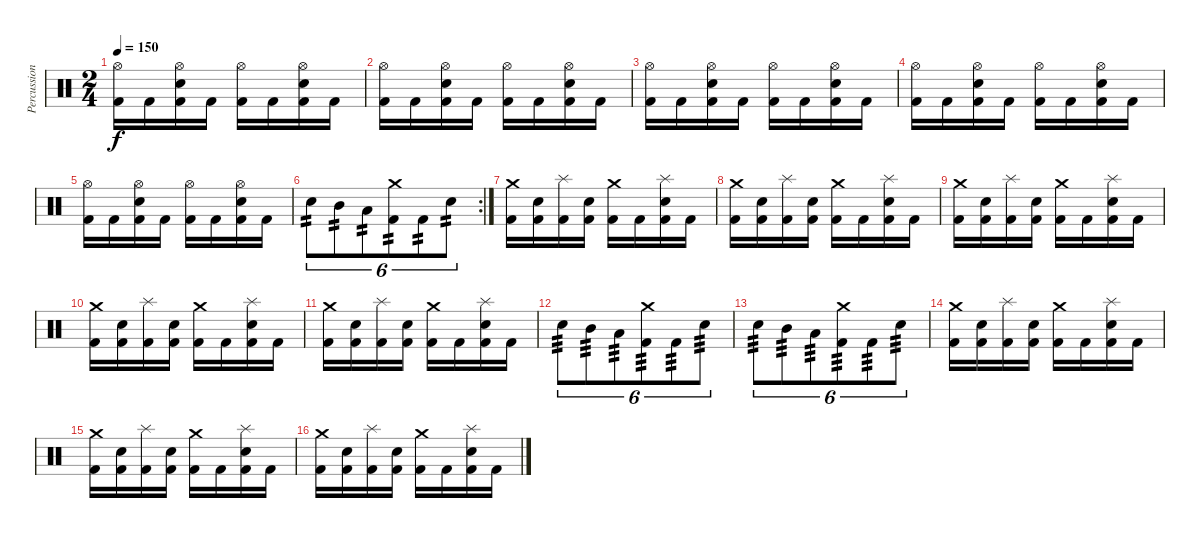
\track ("Percussion" "Percussion") {instrument percussion}
\staff {score}
\articulation defaults
\ts (2 4)
\tempo 150
\clef neutral
\ks c
("Kick (hit) 2" "Hi-Hat (open)").16{dy f} "Kick (hit) 2".16 ("Kick (hit) 2" "Snare (hit) 2" "Hi-Hat (open)").16 "Kick (hit) 2".16 ("Kick (hit) 2" "Hi-Hat (open)").16 "Kick (hit) 2".16 ("Kick (hit) 2" "Snare (hit) 2" "Hi-Hat (open)").16 "Kick (hit) 2".16 |
("Kick (hit) 2" "Hi-Hat (open)").16 "Kick (hit) 2".16 ("Kick (hit) 2" "Snare (hit) 2" "Hi-Hat (open)").16 "Kick (hit) 2".16 ("Kick (hit) 2" "Hi-Hat (open)").16 "Kick (hit) 2".16 ("Kick (hit) 2" "Snare (hit) 2" "Hi-Hat (open)").16 "Kick (hit) 2".16 |
("Kick (hit) 2" "Hi-Hat (open)").16 "Kick (hit) 2".16 ("Kick (hit) 2" "Snare (hit) 2" "Hi-Hat (open)").16 "Kick (hit) 2".16 ("Kick (hit) 2" "Hi-Hat (open)").16 "Kick (hit) 2".16 ("Kick (hit) 2" "Snare (hit) 2" "Hi-Hat (open)").16 "Kick (hit) 2".16 |
("Kick (hit) 2" "Hi-Hat (open)").16 "Kick (hit) 2".16 ("Kick (hit) 2" "Snare (hit) 2" "Hi-Hat (open)").16 "Kick (hit) 2".16 ("Kick (hit) 2" "Hi-Hat (open)").16 "Kick (hit) 2".16 ("Kick (hit) 2" "Snare (hit) 2" "Hi-Hat (open)").16 "Kick (hit) 2".16 |
("Kick (hit) 2" "Hi-Hat (open)").16 "Kick (hit) 2".16 ("Kick (hit) 2" "Snare (hit) 2" "Hi-Hat (open)").16 "Kick (hit) 2".16 ("Kick (hit) 2" "Hi-Hat (open)").16 "Kick (hit) 2".16 ("Kick (hit) 2" "Snare (hit) 2" "Hi-Hat (open)").16 "Kick (hit) 2".16 |
\rc 2 "Snare (hit) 2".8{tu (6 4) tp 2} "Mid Tom (hit)".8{tu (6 4) tp 2} "Low Tom (hit)".8{tu (6 4) tp 2}
("Crash medium (hit)" "Kick (hit) 2").8{tu (6 4) tp 2} "Kick (hit) 2".8{tu (6 4) tp 2} "Snare (hit) 2".8{tu (6 4) tp 2} |
("Kick (hit) 2" "Crash medium (hit)").16 ("Kick (hit) 2" "Snare (hit) 2").16 ("Kick (hit) 2" "Splash (hit)").16 ("Kick (hit) 2" "Snare (hit) 2").16 ("Kick (hit) 2" "Crash medium (hit)").16 "Kick (hit) 2".16 ("Kick (hit) 2" "Snare (hit) 2" "Splash (hit)").16 "Kick (hit) 2".16 |
("Kick (hit) 2" "Crash medium (hit)").16 ("Kick (hit) 2" "Snare (hit) 2").16 ("Kick (hit) 2" "Splash (hit)").16 ("Kick (hit) 2" "Snare (hit) 2").16 ("Kick (hit) 2" "Crash medium (hit)").16 "Kick (hit) 2".16 ("Kick (hit) 2" "Snare (hit) 2" "Splash (hit)").16 "Kick (hit) 2".16 |
("Kick (hit) 2" "Crash medium (hit)").16 ("Kick (hit) 2" "Snare (hit) 2").16 ("Kick (hit) 2" "Splash (hit)").16 ("Kick (hit) 2" "Snare (hit) 2").16 ("Kick (hit) 2" "Crash medium (hit)").16 "Kick (hit) 2".16 ("Kick (hit) 2" "Snare (hit) 2" "Splash (hit)").16 "Kick (hit) 2".16 |
("Kick (hit) 2" "Crash medium (hit)").16 ("Kick (hit) 2" "Snare (hit) 2").16 ("Kick (hit) 2" "Splash (hit)").16 ("Kick (hit) 2" "Snare (hit) 2").16 ("Kick (hit) 2" "Crash medium (hit)").16 "Kick (hit) 2".16 ("Kick (hit) 2" "Snare (hit) 2" "Splash (hit)").16 "Kick (hit) 2".16 |
("Kick (hit) 2" "Crash medium (hit)").16 ("Kick (hit) 2" "Snare (hit) 2").16 ("Kick (hit) 2" "Splash (hit)").16 ("Kick (hit) 2" "Snare (hit) 2").16 ("Kick (hit) 2" "Crash medium (hit)").16 "Kick (hit) 2".16 ("Kick (hit) 2" "Snare (hit) 2" "Splash (hit)").16 "Kick (hit) 2".16 |
"Snare (hit) 2".8{tu (6 4) tp 3} "Mid Tom (hit)".8{tu (6 4) tp 3} "Low Tom (hit)".8{tu (6 4) tp 3} ("Crash medium (hit)" "Kick (hit) 2").8{tu (6 4) tp 3} "Kick (hit) 2".8{tu (6 4) tp 3} "Snare (hit) 2".8{tu (6 4) tp 3} |
"Snare (hit) 2".8{tu (6 4) tp 3} "Mid Tom (hit)".8{tu (6 4) tp 3} "Low Tom (hit)".8{tu (6 4) tp 3} ("Crash medium (hit)" "Kick (hit) 2").8{tu (6 4) tp 3} "Kick (hit) 2".8{tu (6 4) tp 3} "Snare (hit) 2".8{tu (6 4) tp 3} |
("Kick (hit) 2" "Crash medium (hit)").16 ("Kick (hit) 2" "Snare (hit) 2").16 ("Kick (hit) 2" "Splash (hit)").16 ("Kick (hit) 2" "Snare (hit) 2").16 ("Kick (hit) 2" "Crash medium (hit)").16 "Kick (hit) 2".16 ("Kick (hit) 2" "Snare (hit) 2" "Splash (hit)").16 "Kick (hit) 2".16 |
("Kick (hit) 2" "Crash medium (hit)").16 ("Kick (hit) 2" "Snare (hit) 2").16 ("Kick (hit) 2" "Splash (hit)").16 ("Kick (hit) 2" "Snare (hit) 2").16 ("Kick (hit) 2" "Crash medium (hit)").16 "Kick (hit) 2".16 ("Kick (hit) 2" "Snare (hit) 2" "Splash (hit)").16 "Kick (hit) 2".16 |
("Kick (hit) 2" "Crash medium (hit)").16 ("Kick (hit) 2" "Snare (hit) 2").16 ("Kick (hit) 2" "Splash (hit)").16 ("Kick (hit) 2" "Snare (hit) 2").16 ("Kick (hit) 2" "Crash medium (hit)").16 "Kick (hit) 2".16 ("Kick (hit) 2" "Snare (hit) 2" "Splash (hit)").16 "Kick (hit) 2".16
